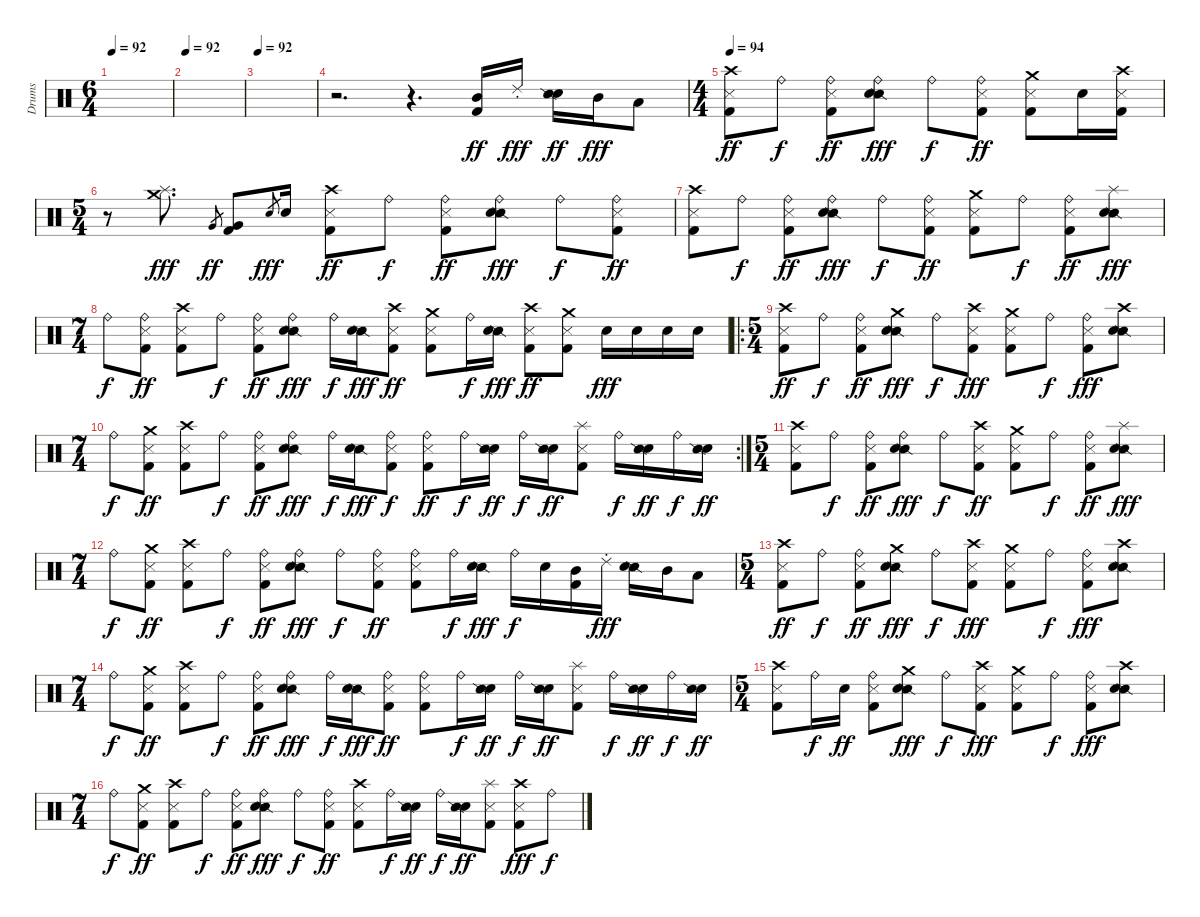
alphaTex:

\track ("Drums" "Drums") {instrument percussion}
\staff {score}
\articulation defaults
\ts (6 4)
\tempo 92
\clef neutral
\ks c
|
\tempo 92
|
\tempo 92
|
r.2{d} r.4{d} ("Mid Tom (hit)" "Kick (hit) 2").16{dy ff} "Ride (choke) 2".16{dy fff} ("Electric Snare (hit)" "Snare (side stick) 2").16{dy ff} "Mid Tom (hit)".16{dy fff} "Low Tom (hit)".8 |
\ts (4 4)
\tempo 94
("Crash high (hit)" "Metronome (hit)" "Kick (hit) 2").8{dy ff} "Ride (bell)".8{dy f} ("Ride (bell)" "Metronome (hit)" "Kick (hit) 2").8{dy ff} ("Ride (bell)" "Snare (side stick) 2" "Electric Snare (hit)").8{dy fff} "Ride (bell)".8{dy f} ("Ride (bell)" "Metronome (hit)" "Kick (hit) 2").8{dy ff} ("Crash medium (hit)" "Metronome (hit)" "Kick (hit) 2").8 "Electric Snare (hit)".16 ("Crash high (hit)" "Metronome (hit)" "Kick (hit) 2").16 |
\ts (5 4)
r.8 ("Crash medium (hit)" "Splash (hit)").8{d dy fff} "Very Low Tom (hit)".8{gr dy ff} ("Very Low Tom (hit)" "Kick (hit) 2").8 "Electric Snare (hit)".8{gr dy fff} "Electric Snare (hit)".16 ("Crash high (hit)" "Metronome (hit)" "Kick (hit) 2").8{dy ff} "Ride (bell)".8{dy f} ("Ride (bell)" "Metronome (hit)" "Kick (hit) 2").8{dy ff} ("Ride (bell)" "Snare (side stick) 2" "Electric Snare (hit)").8{dy fff} "Ride (bell)".8{dy f} ("Ride (bell)" "Metronome (hit)" "Kick (hit) 2").8{dy ff} |
("Crash high (hit)" "Metronome (hit)" "Kick (hit) 2").8 "Ride (bell)".8{dy f} ("Ride (bell)" "Metronome (hit)" "Kick (hit) 2").8{dy ff} ("Ride (bell)" "Snare (side stick) 2" "Electric Snare (hit)").8{dy fff} "Ride (bell)".8{dy f} ("Ride (bell)" "Metronome (hit)" "Kick (hit) 2").8{dy ff} ("Crash medium (hit)" "Metronome (hit)" "Kick (hit) 2").8 "Ride (bell)".8{dy f} ("Ride (bell)" "Metronome (hit)" "Kick (hit) 2").8{dy ff} ("Splash (hit)" "Snare (side stick) 2" "Electric Snare (hit)").8{dy fff} |
\ts (7 4)
"Ride (bell)".8{dy f} ("Ride (bell)" "Metronome (hit)" "Kick (hit) 2").8{dy ff} ("Crash high (hit)" "Metronome (hit)" "Kick (hit) 2").8 "Ride (bell)".8{dy f} ("Ride (bell)" "Metronome (hit)" "Kick (hit) 2").8{dy ff} ("Ride (bell)" "Snare (side stick) 2" "Electric Snare (hit)").8{dy fff} "Ride (bell)".16{dy f} ("Snare (side stick) 2" "Electric Snare (hit)").16{dy fff} ("Crash high (hit)" "Metronome (hit)" "Kick (hit) 2").8{dy ff} ("Crash medium (hit)" "Metronome (hit)" "Kick (hit) 2").8 "Ride (bell)".16{dy f} ("Snare (side stick) 2" "Electric Snare (hit)").16{dy fff} ("Crash high (hit)" "Metronome (hit)" "Kick (hit) 2").8{dy ff} ("Crash medium (hit)" "Metronome (hit)" "Kick (hit) 2").8 "Electric Snare (hit)".16{dy fff} "Electric Snare (hit)".16 "Electric Snare (hit)".16 "Electric Snare (hit)".16 |
\ro
\ts (5 4)
("Crash high (hit)" "Metronome (hit)" "Kick (hit) 2").8{dy ff} "Ride (bell)".8{dy f} ("Ride (bell)" "Metronome (hit)" "Kick (hit) 2").8{dy ff} ("Crash medium (hit)" "Snare (side stick) 2" "Electric Snare (hit)").8{dy fff} "Ride (bell)".8{dy f} ("Crash high (hit)" "Metronome (hit)" "Kick (hit) 2").8{dy fff} ("Crash medium (hit)" "Metronome (hit)" "Kick (hit) 2").8 "Ride (bell)".8{dy f} ("Ride (bell)" "Metronome (hit)" "Kick (hit) 2").8{dy fff} ("Crash high (hit)" "Snare (side stick) 2" "Electric Snare (hit)").8 |
\rc 2
\ts (7 4)
"Ride (bell)".8{dy f} ("Crash medium (hit)" "Metronome (hit)" "Kick (hit) 2").8{dy ff} ("Crash high (hit)" "Metronome (hit)" "Kick (hit) 2").8 "Ride (bell)".8{dy f} ("Ride (bell)" "Metronome (hit)" "Kick (hit) 2").8{dy ff} ("Ride (bell)" "Snare (side stick) 2" "Electric Snare (hit)").8{dy fff} "Ride (bell)".16{dy f} ("Snare (side stick) 2" "Electric Snare (hit)").16{dy fff} ("Ride (bell)" "Metronome (hit)" "Kick (hit) 2").8{dy f} ("Ride (bell)" "Metronome (hit)" "Kick (hit) 2").8{dy ff} "Ride (bell)".16{dy f} ("Electric Snare (hit)" "Snare (side stick) 2").16{dy ff} "Ride (bell)".16{dy f} ("Electric Snare (hit)" "Snare (side stick) 2").16{dy ff} ("Splash (hit)" "Metronome (hit)" "Kick (hit) 2").8 "Ride (bell)".16{dy f} ("Electric Snare (hit)" "Snare (side stick) 2").16{dy ff} "Ride (bell)".16{dy f} ("Electric Snare (hit)" "Snare (side stick) 2").16{dy ff} |
\ts (5 4)
("Crash high (hit)" "Metronome (hit)" "Kick (hit) 2").8 "Ride (bell)".8{dy f} ("Ride (bell)" "Metronome (hit)" "Kick (hit) 2").8{dy ff} ("Ride (bell)" "Snare (side stick) 2" "Electric Snare (hit)").8{dy fff} "Ride (bell)".8{dy f} ("Crash high (hit)" "Metronome (hit)" "Kick (hit) 2").8{dy ff} ("Crash medium (hit)" "Metronome (hit)" "Kick (hit) 2").8 "Ride (bell)".8{dy f} ("Ride (bell)" "Metronome (hit)" "Kick (hit) 2").8{dy ff} ("Splash (hit)" "Snare (side stick) 2" "Electric Snare (hit)").8{dy fff} |
\ts (7 4)
"Ride (bell)".8{dy f} ("Crash medium (hit)" "Metronome (hit)" "Kick (hit) 2").8{dy ff} ("Crash high (hit)" "Metronome (hit)" "Kick (hit) 2").8 "Ride (bell)".8{dy f} ("Ride (bell)" "Metronome (hit)" "Kick (hit) 2").8{dy ff} ("Ride (bell)" "Snare (side stick) 2" "Electric Snare (hit)").8{dy fff} "Ride (bell)".8{dy f} ("Ride (bell)" "Metronome (hit)" "Kick (hit) 2").8{dy ff} ("Ride (bell)" "Metronome (hit)" "Kick (hit) 2").8 "Ride (bell)".16{dy f} ("Snare (side stick) 2" "Electric Snare (hit)").16{dy fff} "Ride (bell)".16{dy f} "Electric Snare (hit)".16 ("Mid Tom (hit)" "Kick (hit) 2").16 "Ride (choke) 2".16{dy fff} ("Snare (side stick) 2" "Electric Snare (hit)").16 "Mid Tom (hit)".16 "Low Tom (hit)".8 |
\ts (5 4)
("Crash high (hit)" "Metronome (hit)" "Kick (hit) 2").8{dy ff} "Ride (bell)".8{dy f} ("Ride (bell)" "Metronome (hit)" "Kick (hit) 2").8{dy ff} ("Crash medium (hit)" "Snare (side stick) 2" "Electric Snare (hit)").8{dy fff} "Ride (bell)".8{dy f} ("Crash high (hit)" "Metronome (hit)" "Kick (hit) 2").8{dy fff} ("Crash medium (hit)" "Metronome (hit)" "Kick (hit) 2").8 "Ride (bell)".8{dy f} ("Ride (bell)" "Metronome (hit)" "Kick (hit) 2").8{dy fff} ("Crash high (hit)" "Snare (side stick) 2" "Electric Snare (hit)").8 |
\ts (7 4)
"Ride (bell)".8{dy f} ("Crash medium (hit)" "Metronome (hit)" "Kick (hit) 2").8{dy ff} ("Crash high (hit)" "Metronome (hit)" "Kick (hit) 2").8 "Ride (bell)".8{dy f} ("Ride (bell)" "Metronome (hit)" "Kick (hit) 2").8{dy ff} ("Ride (bell)" "Snare (side stick) 2" "Electric Snare (hit)").8{dy fff} "Ride (bell)".16{dy f} ("Snare (side stick) 2" "Electric Snare (hit)").16{dy fff} ("Ride (bell)" "Metronome (hit)" "Kick (hit) 2").8{dy ff} ("Ride (bell)" "Metronome (hit)" "Kick (hit) 2").8 "Ride (bell)".16{dy f} ("Electric Snare (hit)" "Snare (side stick) 2").16{dy ff} "Ride (bell)".16{dy f} ("Electric Snare (hit)" "Snare (side stick) 2").16{dy ff} ("Splash (hit)" "Metronome (hit)" "Kick (hit) 2").8 "Ride (bell)".16{dy f} ("Electric Snare (hit)" "Snare (side stick) 2").16{dy ff} "Ride (bell)".16{dy f} ("Electric Snare (hit)" "Snare (side stick) 2").16{dy ff} |
\ts (5 4)
("Crash high (hit)" "Metronome (hit)" "Kick (hit) 2").8 "Ride (bell)".16{dy f} "Electric Snare (hit)".16{dy ff} ("Ride (bell)" "Metronome (hit)" "Kick (hit) 2").8 ("Crash medium (hit)" "Snare (side stick) 2" "Electric Snare (hit)").8{dy fff} "Ride (bell)".8{dy f} ("Crash high (hit)" "Metronome (hit)" "Kick (hit) 2").8{dy fff} ("Crash medium (hit)" "Metronome (hit)" "Kick (hit) 2").8 "Ride (bell)".8{dy f} ("Ride (bell)" "Metronome (hit)" "Kick (hit) 2").8{dy fff} ("Crash high (hit)" "Snare (side stick) 2" "Electric Snare (hit)").8 |
\ts (7 4)
"Ride (bell)".8{dy f} ("Crash medium (hit)" "Metronome (hit)" "Kick (hit) 2").8{dy ff} ("Crash high (hit)" "Metronome (hit)" "Kick (hit) 2").8 "Ride (bell)".8{dy f} ("Ride (bell)" "Metronome (hit)" "Kick (hit) 2").8{dy ff} ("Ride (bell)" "Snare (side stick) 2" "Electric Snare (hit)").8{dy fff} "Ride (bell)".8{dy f} ("Ride (bell)" "Metronome (hit)" "Kick (hit) 2").8{dy ff} ("Crash high (hit)" "Metronome (hit)" "Kick (hit) 2").8 "Ride (bell)".16{dy f} ("Electric Snare (hit)" "Snare (side stick) 2").16{dy ff} "Ride (bell)".16{dy f} ("Electric Snare (hit)" "Snare (side stick) 2").16{dy ff} ("Splash (hit)" "Metronome (hit)" "Kick (hit) 2").8 ("Crash high (hit)" "Metronome (hit)" "Kick (hit) 2").8{dy fff} "Ride (bell)".8{dy f}
